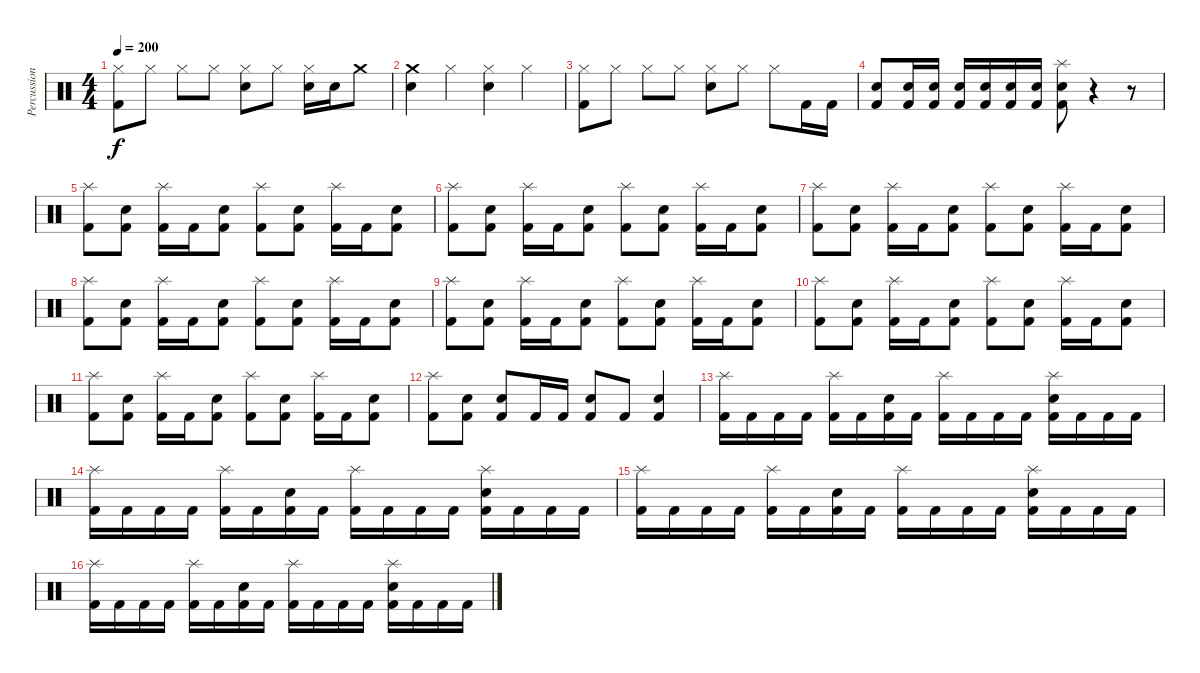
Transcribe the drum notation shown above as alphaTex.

\track ("Percussion" "Percussion") {instrument percussion}
\staff {score}
\articulation defaults
\ts (4 4)
\tempo 200
\clef neutral
\ks c
("Kick (hit) 2" "Hi-Hat (closed)").8{dy f} "Hi-Hat (closed)".8 "Hi-Hat (closed)".8 "Hi-Hat (closed)".8 ("Snare (hit) 2" "Hi-Hat (closed)").8 "Hi-Hat (closed)".8 ("Snare (hit) 2" "Hi-Hat (closed)").16 "Snare (hit) 2".16 "Crash medium (hit)".8 |
("Snare (hit) 2" "Crash medium (hit)").4 "Hi-Hat (closed)".4 ("Snare (hit) 2" "Hi-Hat (closed)").4 "Hi-Hat (closed)".4 |
("Kick (hit) 2" "Hi-Hat (closed)").8 "Hi-Hat (closed)".8 "Hi-Hat (closed)".8 "Hi-Hat (closed)".8 ("Snare (hit) 2" "Hi-Hat (closed)").8 "Hi-Hat (closed)".8 "Hi-Hat (closed)".8 "Kick (hit) 2".16 "Kick (hit) 2".16 |
("Kick (hit) 2" "Snare (hit) 2").8 ("Kick (hit) 2" "Snare (hit) 2").16 ("Kick (hit) 2" "Snare (hit) 2").16 ("Kick (hit) 2" "Snare (hit) 2").16 ("Kick (hit) 2" "Snare (hit) 2").16 ("Kick (hit) 2" "Snare (hit) 2").16 ("Kick (hit) 2" "Snare (hit) 2").16 ("Kick (hit) 2" "Snare (hit) 2" "Splash (hit)").8 r.4 r.8 |
("Kick (hit) 2" "Splash (hit)").8 ("Kick (hit) 2" "Snare (hit) 2").8 ("Kick (hit) 2" "Splash (hit)").16 "Kick (hit) 2".16 ("Kick (hit) 2" "Snare (hit) 2").8 ("Kick (hit) 2" "Splash (hit)").8 ("Kick (hit) 2" "Snare (hit) 2").8 ("Kick (hit) 2" "Splash (hit)").16 "Kick (hit) 2".16 ("Kick (hit) 2" "Snare (hit) 2").8 |
("Kick (hit) 2" "Splash (hit)").8 ("Kick (hit) 2" "Snare (hit) 2").8 ("Kick (hit) 2" "Splash (hit)").16 "Kick (hit) 2".16 ("Kick (hit) 2" "Snare (hit) 2").8 ("Kick (hit) 2" "Splash (hit)").8 ("Kick (hit) 2" "Snare (hit) 2").8 ("Kick (hit) 2" "Splash (hit)").16 "Kick (hit) 2".16 ("Kick (hit) 2" "Snare (hit) 2").8 |
("Kick (hit) 2" "Splash (hit)").8 ("Kick (hit) 2" "Snare (hit) 2").8 ("Kick (hit) 2" "Splash (hit)").16 "Kick (hit) 2".16 ("Kick (hit) 2" "Snare (hit) 2").8 ("Kick (hit) 2" "Splash (hit)").8 ("Kick (hit) 2" "Snare (hit) 2").8 ("Kick (hit) 2" "Splash (hit)").16 "Kick (hit) 2".16 ("Kick (hit) 2" "Snare (hit) 2").8 |
("Kick (hit) 2" "Splash (hit)").8 ("Kick (hit) 2" "Snare (hit) 2").8 ("Kick (hit) 2" "Splash (hit)").16 "Kick (hit) 2".16 ("Kick (hit) 2" "Snare (hit) 2").8 ("Kick (hit) 2" "Splash (hit)").8 ("Kick (hit) 2" "Snare (hit) 2").8 ("Kick (hit) 2" "Splash (hit)").16 "Kick (hit) 2".16 ("Kick (hit) 2" "Snare (hit) 2").8 |
("Kick (hit) 2" "Splash (hit)").8 ("Kick (hit) 2" "Snare (hit) 2").8 ("Kick (hit) 2" "Splash (hit)").16 "Kick (hit) 2".16 ("Kick (hit) 2" "Snare (hit) 2").8 ("Kick (hit) 2" "Splash (hit)").8 ("Kick (hit) 2" "Snare (hit) 2").8 ("Kick (hit) 2" "Splash (hit)").16 "Kick (hit) 2".16 ("Kick (hit) 2" "Snare (hit) 2").8 |
("Kick (hit) 2" "Splash (hit)").8 ("Kick (hit) 2" "Snare (hit) 2").8 ("Kick (hit) 2" "Splash (hit)").16 "Kick (hit) 2".16 ("Kick (hit) 2" "Snare (hit) 2").8 ("Kick (hit) 2" "Splash (hit)").8 ("Kick (hit) 2" "Snare (hit) 2").8 ("Kick (hit) 2" "Splash (hit)").16 "Kick (hit) 2".16 ("Kick (hit) 2" "Snare (hit) 2").8 |
("Kick (hit) 2" "Splash (hit)").8 ("Kick (hit) 2" "Snare (hit) 2").8 ("Kick (hit) 2" "Splash (hit)").16 "Kick (hit) 2".16 ("Kick (hit) 2" "Snare (hit) 2").8 ("Kick (hit) 2" "Splash (hit)").8 ("Kick (hit) 2" "Snare (hit) 2").8 ("Kick (hit) 2" "Splash (hit)").16 "Kick (hit) 2".16 ("Kick (hit) 2" "Snare (hit) 2").8 |
("Kick (hit) 2" "Splash (hit)").8 ("Kick (hit) 2" "Snare (hit) 2").8 ("Kick (hit) 2" "Snare (hit) 2").8 "Kick (hit) 2".16 "Kick (hit) 2".16 ("Kick (hit) 2" "Snare (hit) 2").8 "Kick (hit) 2".8 ("Kick (hit) 2" "Snare (hit) 2").4 |
("Kick (hit) 2" "Splash (hit)").16 "Kick (hit) 2".16 "Kick (hit) 2".16 "Kick (hit) 2".16 ("Kick (hit) 2" "Splash (hit)").16 "Kick (hit) 2".16 ("Kick (hit) 2" "Snare (hit) 2").16 "Kick (hit) 2".16 ("Kick (hit) 2" "Splash (hit)").16 "Kick (hit) 2".16 "Kick (hit) 2".16 "Kick (hit) 2".16 ("Kick (hit) 2" "Splash (hit)" "Snare (hit) 2").16 "Kick (hit) 2".16 "Kick (hit) 2".16 "Kick (hit) 2".16 |
("Kick (hit) 2" "Splash (hit)").16 "Kick (hit) 2".16 "Kick (hit) 2".16 "Kick (hit) 2".16 ("Kick (hit) 2" "Splash (hit)").16 "Kick (hit) 2".16 ("Kick (hit) 2" "Snare (hit) 2").16 "Kick (hit) 2".16 ("Kick (hit) 2" "Splash (hit)").16 "Kick (hit) 2".16 "Kick (hit) 2".16 "Kick (hit) 2".16 ("Kick (hit) 2" "Splash (hit)" "Snare (hit) 2").16 "Kick (hit) 2".16 "Kick (hit) 2".16 "Kick (hit) 2".16 |
("Kick (hit) 2" "Splash (hit)").16 "Kick (hit) 2".16 "Kick (hit) 2".16 "Kick (hit) 2".16 ("Kick (hit) 2" "Splash (hit)").16 "Kick (hit) 2".16 ("Kick (hit) 2" "Snare (hit) 2").16 "Kick (hit) 2".16 ("Kick (hit) 2" "Splash (hit)").16 "Kick (hit) 2".16 "Kick (hit) 2".16 "Kick (hit) 2".16 ("Kick (hit) 2" "Splash (hit)" "Snare (hit) 2").16 "Kick (hit) 2".16 "Kick (hit) 2".16 "Kick (hit) 2".16 |
("Kick (hit) 2" "Splash (hit)").16 "Kick (hit) 2".16 "Kick (hit) 2".16 "Kick (hit) 2".16 ("Kick (hit) 2" "Splash (hit)").16 "Kick (hit) 2".16 ("Kick (hit) 2" "Snare (hit) 2").16 "Kick (hit) 2".16 ("Kick (hit) 2" "Splash (hit)").16 "Kick (hit) 2".16 "Kick (hit) 2".16 "Kick (hit) 2".16 ("Kick (hit) 2" "Splash (hit)" "Snare (hit) 2").16 "Kick (hit) 2".16 "Kick (hit) 2".16 "Kick (hit) 2".16
